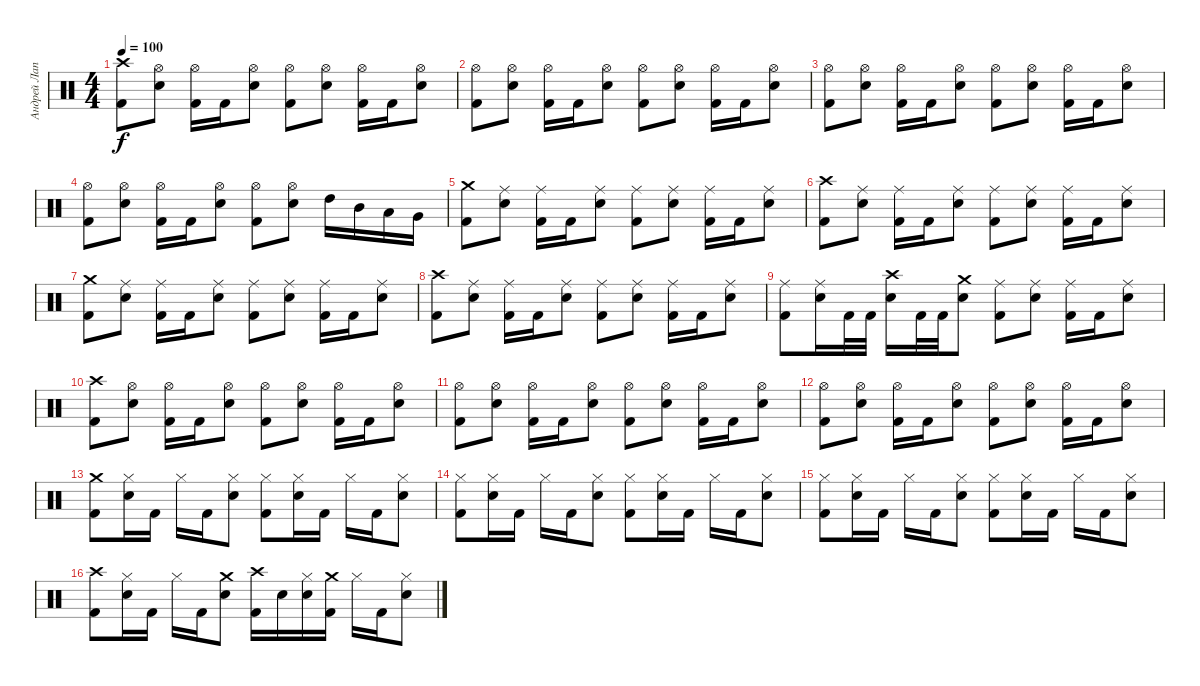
\track ("Андрей Лаптев" "Андрей Лап") {instrument percussion}
\staff {score}
\articulation defaults
\ts (4 4)
\tempo 100
\clef neutral
\ks c
("Crash high (hit)" "Kick (hit) 2").8{dy f} ("Hi-Hat (open)" "Snare (hit) 2").8 ("Hi-Hat (open)" "Kick (hit) 2").16 "Kick (hit) 2".16 ("Hi-Hat (open)" "Snare (hit) 2").8 ("Hi-Hat (open)" "Kick (hit) 2").8 ("Hi-Hat (open)" "Snare (hit) 2").8 ("Hi-Hat (open)" "Kick (hit) 2").16 "Kick (hit) 2".16 ("Hi-Hat (open)" "Snare (hit) 2").8 |
("Hi-Hat (open)" "Kick (hit) 2").8 ("Hi-Hat (open)" "Snare (hit) 2").8 ("Hi-Hat (open)" "Kick (hit) 2").16 "Kick (hit) 2".16 ("Hi-Hat (open)" "Snare (hit) 2").8 ("Hi-Hat (open)" "Kick (hit) 2").8 ("Hi-Hat (open)" "Snare (hit) 2").8 ("Hi-Hat (open)" "Kick (hit) 2").16 "Kick (hit) 2".16 ("Hi-Hat (open)" "Snare (hit) 2").8 |
("Hi-Hat (open)" "Kick (hit) 2").8 ("Hi-Hat (open)" "Snare (hit) 2").8 ("Hi-Hat (open)" "Kick (hit) 2").16 "Kick (hit) 2".16 ("Hi-Hat (open)" "Snare (hit) 2").8 ("Hi-Hat (open)" "Kick (hit) 2").8 ("Hi-Hat (open)" "Snare (hit) 2").8 ("Hi-Hat (open)" "Kick (hit) 2").16 "Kick (hit) 2".16 ("Hi-Hat (open)" "Snare (hit) 2").8 |
("Hi-Hat (open)" "Kick (hit) 2").8 ("Hi-Hat (open)" "Snare (hit) 2").8 ("Hi-Hat (open)" "Kick (hit) 2").16 "Kick (hit) 2".16 ("Hi-Hat (open)" "Snare (hit) 2").8 ("Hi-Hat (open)" "Kick (hit) 2").8 ("Hi-Hat (open)" "Snare (hit) 2").8 "High Tom (hit)".16 "Mid Tom (hit)".16 "Low Tom (hit)".16 "Very Low Tom (hit)".16 |
("Crash medium (hit)" "Kick (hit) 2").8 ("Ride (middle)" "Snare (hit) 2").8 ("Ride (middle)" "Kick (hit) 2").16 "Kick (hit) 2".16 ("Ride (middle)" "Snare (hit) 2").8 ("Ride (middle)" "Kick (hit) 2").8 ("Ride (middle)" "Snare (hit) 2").8 ("Ride (middle)" "Kick (hit) 2").16 "Kick (hit) 2".16 ("Ride (middle)" "Snare (hit) 2").8 |
("Crash high (hit)" "Kick (hit) 2").8 ("Ride (middle)" "Snare (hit) 2").8 ("Ride (middle)" "Kick (hit) 2").16 "Kick (hit) 2".16 ("Ride (middle)" "Snare (hit) 2").8 ("Ride (middle)" "Kick (hit) 2").8 ("Ride (middle)" "Snare (hit) 2").8 ("Ride (middle)" "Kick (hit) 2").16 "Kick (hit) 2".16 ("Ride (middle)" "Snare (hit) 2").8 |
("Crash medium (hit)" "Kick (hit) 2").8 ("Ride (middle)" "Snare (hit) 2").8 ("Ride (middle)" "Kick (hit) 2").16 "Kick (hit) 2".16 ("Ride (middle)" "Snare (hit) 2").8 ("Ride (middle)" "Kick (hit) 2").8 ("Ride (middle)" "Snare (hit) 2").8 ("Ride (middle)" "Kick (hit) 2").16 "Kick (hit) 2".16 ("Ride (middle)" "Snare (hit) 2").8 |
("Crash high (hit)" "Kick (hit) 2").8 ("Ride (middle)" "Snare (hit) 2").8 ("Ride (middle)" "Kick (hit) 2").16 "Kick (hit) 2".16 ("Ride (middle)" "Snare (hit) 2").8 ("Ride (middle)" "Kick (hit) 2").8 ("Ride (middle)" "Snare (hit) 2").8 ("Ride (middle)" "Kick (hit) 2").16 "Kick (hit) 2".16 ("Ride (middle)" "Snare (hit) 2").8 |
("Ride (middle)" "Kick (hit) 2").8 ("Ride (middle)" "Snare (hit) 2").16 "Kick (hit) 2".32 "Kick (hit) 2".32 ("Crash high (hit)" "Snare (hit) 2").16 "Kick (hit) 2".32 "Kick (hit) 2".32 ("Crash medium (hit)" "Snare (hit) 2").8 ("Ride (middle)" "Kick (hit) 2").8 ("Ride (middle)" "Snare (hit) 2").8 ("Ride (middle)" "Kick (hit) 2").16 "Kick (hit) 2".16 ("Ride (middle)" "Snare (hit) 2").8 |
("Crash high (hit)" "Kick (hit) 2").8 ("Hi-Hat (open)" "Snare (hit) 2").8 ("Hi-Hat (open)" "Kick (hit) 2").16 "Kick (hit) 2".16 ("Hi-Hat (open)" "Snare (hit) 2").8 ("Hi-Hat (open)" "Kick (hit) 2").8 ("Hi-Hat (open)" "Snare (hit) 2").8 ("Hi-Hat (open)" "Kick (hit) 2").16 "Kick (hit) 2".16 ("Hi-Hat (open)" "Snare (hit) 2").8 |
("Hi-Hat (open)" "Kick (hit) 2").8 ("Hi-Hat (open)" "Snare (hit) 2").8 ("Hi-Hat (open)" "Kick (hit) 2").16 "Kick (hit) 2".16 ("Hi-Hat (open)" "Snare (hit) 2").8 ("Hi-Hat (open)" "Kick (hit) 2").8 ("Hi-Hat (open)" "Snare (hit) 2").8 ("Hi-Hat (open)" "Kick (hit) 2").16 "Kick (hit) 2".16 ("Hi-Hat (open)" "Snare (hit) 2").8 |
("Hi-Hat (open)" "Kick (hit) 2").8 ("Hi-Hat (open)" "Snare (hit) 2").8 ("Hi-Hat (open)" "Kick (hit) 2").16 "Kick (hit) 2".16 ("Hi-Hat (open)" "Snare (hit) 2").8 ("Hi-Hat (open)" "Kick (hit) 2").8 ("Hi-Hat (open)" "Snare (hit) 2").8 ("Hi-Hat (open)" "Kick (hit) 2").16 "Kick (hit) 2".16 ("Hi-Hat (open)" "Snare (hit) 2").8 |
("Crash medium (hit)" "Kick (hit) 2").8 ("Hi-Hat (closed)" "Snare (hit) 2").16 "Kick (hit) 2".16 "Hi-Hat (closed)".16 "Kick (hit) 2".16 ("Hi-Hat (closed)" "Snare (hit) 2").8 ("Hi-Hat (closed)" "Kick (hit) 2").8 ("Hi-Hat (closed)" "Snare (hit) 2").16 "Kick (hit) 2".16 "Hi-Hat (closed)".16 "Kick (hit) 2".16 ("Hi-Hat (closed)" "Snare (hit) 2").8 |
("Hi-Hat (closed)" "Kick (hit) 2").8 ("Hi-Hat (closed)" "Snare (hit) 2").16 "Kick (hit) 2".16 "Hi-Hat (closed)".16 "Kick (hit) 2".16 ("Hi-Hat (closed)" "Snare (hit) 2").8 ("Hi-Hat (closed)" "Kick (hit) 2").8 ("Hi-Hat (closed)" "Snare (hit) 2").16 "Kick (hit) 2".16 "Hi-Hat (closed)".16 "Kick (hit) 2".16 ("Hi-Hat (closed)" "Snare (hit) 2").8 |
("Hi-Hat (closed)" "Kick (hit) 2").8 ("Hi-Hat (closed)" "Snare (hit) 2").16 "Kick (hit) 2".16 "Hi-Hat (closed)".16 "Kick (hit) 2".16 ("Hi-Hat (closed)" "Snare (hit) 2").8 ("Hi-Hat (closed)" "Kick (hit) 2").8 ("Hi-Hat (closed)" "Snare (hit) 2").16 "Kick (hit) 2".16 "Hi-Hat (closed)".16 "Kick (hit) 2".16 ("Hi-Hat (closed)" "Snare (hit) 2").8 |
("Crash high (hit)" "Kick (hit) 2").8 ("Hi-Hat (closed)" "Snare (hit) 2").16 "Kick (hit) 2".16 "Hi-Hat (closed)".16 "Kick (hit) 2".16 ("Crash medium (hit)" "Snare (hit) 2").8 ("Crash high (hit)" "Kick (hit) 2").16 "Snare (hit) 2".16 ("Hi-Hat (closed)" "Snare (hit) 2").16 ("Crash medium (hit)" "Kick (hit) 2").16 "Hi-Hat (closed)".16 "Kick (hit) 2".16 ("Hi-Hat (closed)" "Snare (hit) 2").8
